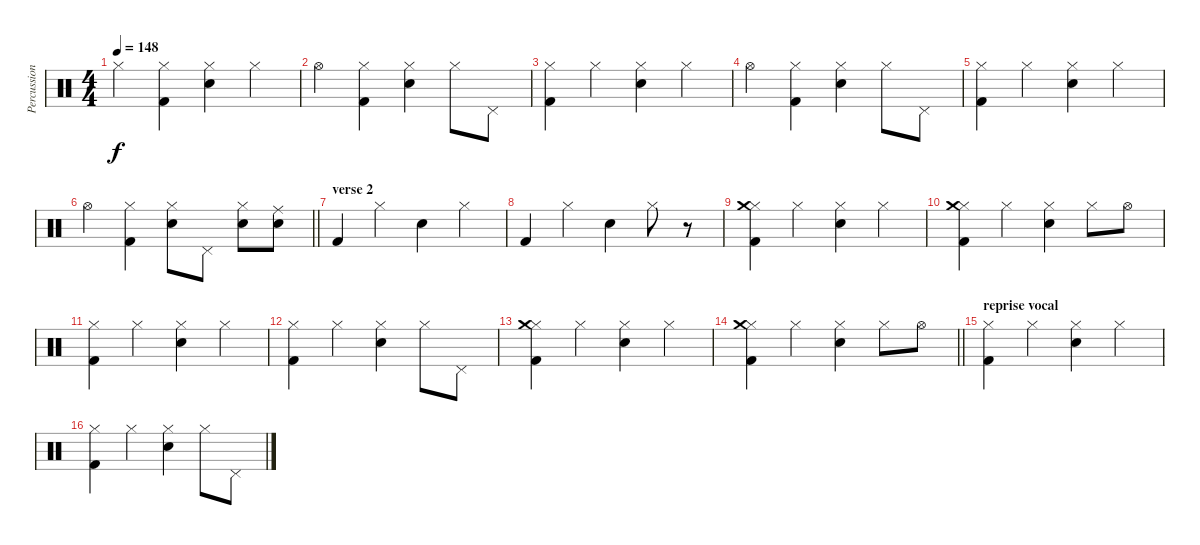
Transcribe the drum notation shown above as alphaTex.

\track ("Percussions" "Percussion") {instrument percussion}
\staff {score}
\articulation defaults
\ts (4 4)
\tempo 148
\clef neutral
\ks c "Hi-Hat (closed)".4{dy f}
("Hi-Hat (closed)" "Kick (hit) 2").4 ("Hi-Hat (closed)" "Snare (hit) 2").4 "Hi-Hat (closed)".4 |
"Hi-Hat (open)".4 ("Hi-Hat (closed)" "Kick (hit) 2").4 ("Hi-Hat (closed)" "Snare (hit) 2").4 "Hi-Hat (closed)".8 "Pedal Hi-Hat (hit)".8 |
("Hi-Hat (closed)" "Kick (hit) 2").4 "Hi-Hat (closed)".4 ("Hi-Hat (closed)" "Snare (hit) 2").4 "Hi-Hat (closed)".4 |
"Hi-Hat (open)".4 ("Hi-Hat (closed)" "Kick (hit) 2").4 ("Hi-Hat (closed)" "Snare (hit) 2").4 "Hi-Hat (closed)".8 "Pedal Hi-Hat (hit)".8 |
("Hi-Hat (closed)" "Kick (hit) 2").4 "Hi-Hat (closed)".4 ("Hi-Hat (closed)" "Snare (hit) 2").4 "Hi-Hat (closed)".4 |
\barLineRight lightlight "Hi-Hat (open)".4
("Hi-Hat (closed)" "Kick (hit) 2").4 ("Hi-Hat (closed)" "Snare (hit) 2").8 "Pedal Hi-Hat (hit)".8 ("Hi-Hat (closed)" "Snare (hit) 2").8 ("Ride (middle)" "Snare (hit) 2").8 |
\section ("" "verse 2")
"Kick (hit) 2".4 "Hi-Hat (closed)".4 "Snare (hit) 2".4 "Hi-Hat (closed)".4 |
"Kick (hit) 2".4 "Hi-Hat (closed)".4 "Snare (hit) 2".4 "Hi-Hat (closed)".8 r.8 |
("Hi-Hat (closed)" "Kick (hit) 2" "Crash medium (hit)").4 "Hi-Hat (closed)".4 ("Hi-Hat (closed)" "Snare (hit) 2").4 "Hi-Hat (closed)".4 |
("Hi-Hat (closed)" "Kick (hit) 2" "Crash medium (hit)").4 "Hi-Hat (closed)".4 ("Hi-Hat (closed)" "Snare (hit) 2").4 "Hi-Hat (closed)".8 "Hi-Hat (open)".8 |
("Hi-Hat (closed)" "Kick (hit) 2").4 "Hi-Hat (closed)".4 ("Hi-Hat (closed)" "Snare (hit) 2").4 "Hi-Hat (closed)".4 |
("Hi-Hat (closed)" "Kick (hit) 2").4 "Hi-Hat (closed)".4 ("Hi-Hat (closed)" "Snare (hit) 2").4 "Hi-Hat (closed)".8 "Pedal Hi-Hat (hit)".8 |
("Hi-Hat (closed)" "Kick (hit) 2" "Crash medium (hit)").4 "Hi-Hat (closed)".4 ("Hi-Hat (closed)" "Snare (hit) 2").4 "Hi-Hat (closed)".4 |
\barLineRight lightlight
("Hi-Hat (closed)" "Kick (hit) 2" "Crash medium (hit)").4 "Hi-Hat (closed)".4 ("Hi-Hat (closed)" "Snare (hit) 2").4 "Hi-Hat (closed)".8 "Hi-Hat (open)".8 |
\section ("" "reprise vocal")
("Hi-Hat (closed)" "Kick (hit) 2").4 "Hi-Hat (closed)".4 ("Hi-Hat (closed)" "Snare (hit) 2").4 "Hi-Hat (closed)".4 |
("Hi-Hat (closed)" "Kick (hit) 2").4 "Hi-Hat (closed)".4 ("Hi-Hat (closed)" "Snare (hit) 2").4 "Hi-Hat (closed)".8 "Pedal Hi-Hat (hit)".8
